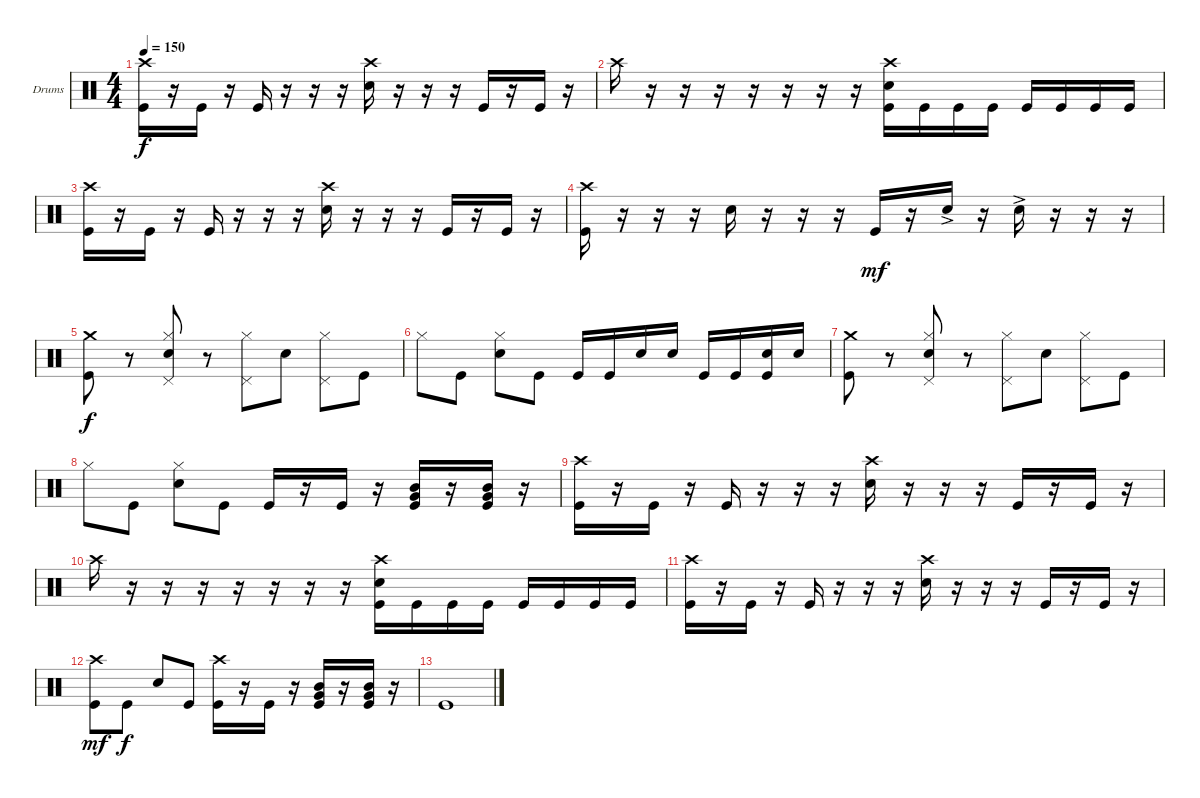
\bracketExtendMode groupsimilarinstruments
\firstSystemTrackNameOrientation horizontal
\otherSystemsTrackNameOrientation horizontal
\track ("Cory La Quay" "Drums") {instrument percussion}
\staff {score}
\articulation defaults
\ts (4 4)
\tempo 150
\clef neutral
\ks c
("Crash high (hit)" "Kick (hit)").16{dy f} r.16 "Kick (hit)".16 r.16 "Kick (hit)".16 r.16 r.16 r.16 ("Crash high (hit)" "Snare (hit) 2").16 r.16 r.16 r.16 "Kick (hit)".16 r.16 "Kick (hit)".16 r.16 |
"Crash high (hit)".16 r.16 r.16 r.16 r.16 r.16 r.16 r.16 ("Crash high (hit)" "Snare (hit) 2" "Kick (hit)").16 "Kick (hit)".16 "Kick (hit)".16 "Kick (hit)".16 "Kick (hit)".16 "Kick (hit)".16 "Kick (hit)".16 "Kick (hit)".16 |
("Crash high (hit)" "Kick (hit)").16 r.16 "Kick (hit)".16 r.16 "Kick (hit)".16 r.16 r.16 r.16 ("Crash high (hit)" "Snare (hit) 2").16 r.16 r.16 r.16 "Kick (hit)".16 r.16 "Kick (hit)".16 r.16 |
("Crash high (hit)" "Kick (hit)").16 r.16 r.16 r.16 "Snare (hit) 2".16 r.16 r.16 r.16 "Kick (hit)".16{dy mf} r.16 "Snare (hit) 2"{ac}.16 r.16 "Snare (hit) 2"{ac}.16 r.16 r.16 r.16 |
("Kick (hit)" "Crash medium (hit)").8{dy f} r.8 ("Snare (hit) 2" "Hi-Hat (closed)" "Pedal Hi-Hat (hit)").8 r.8 ("Hi-Hat (closed)" "Pedal Hi-Hat (hit)").8 "Snare (hit) 2".8 ("Hi-Hat (closed)" "Pedal Hi-Hat (hit)").8 "Kick (hit)".8 |
"Hi-Hat (closed)".8 "Kick (hit)".8 ("Snare (hit) 2" "Hi-Hat (closed)").8 "Kick (hit)".8 "Kick (hit)".16 "Kick (hit)".16 "Snare (hit) 2".16 "Snare (hit) 2".16 "Kick (hit)".16 "Kick (hit)".16 ("Snare (hit) 2" "Kick (hit)").16 "Snare (hit) 2".16 |
("Kick (hit)" "Crash medium (hit)").8 r.8 ("Snare (hit) 2" "Hi-Hat (closed)" "Pedal Hi-Hat (hit)").8 r.8 ("Hi-Hat (closed)" "Pedal Hi-Hat (hit)").8 "Snare (hit) 2".8 ("Hi-Hat (closed)" "Pedal Hi-Hat (hit)").8 "Kick (hit)".8 |
"Hi-Hat (closed)".8 "Kick (hit)".8 ("Snare (hit) 2" "Hi-Hat (closed)").8 "Kick (hit)".8 "Kick (hit)".16 r.16 "Kick (hit)".16 r.16 ("Kick (hit)" "Mid Tom (hit)" "Very Low Tom (hit)").16 r.16 ("Kick (hit)" "Mid Tom (hit)" "Very Low Tom (hit)").16 r.16 |
("Crash high (hit)" "Kick (hit)").16 r.16 "Kick (hit)".16 r.16 "Kick (hit)".16 r.16 r.16 r.16 ("Crash high (hit)" "Snare (hit) 2").16 r.16 r.16 r.16 "Kick (hit)".16 r.16 "Kick (hit)".16 r.16 |
"Crash high (hit)".16 r.16 r.16 r.16 r.16 r.16 r.16 r.16 ("Crash high (hit)" "Snare (hit) 2" "Kick (hit)").16 "Kick (hit)".16 "Kick (hit)".16 "Kick (hit)".16 "Kick (hit)".16 "Kick (hit)".16 "Kick (hit)".16 "Kick (hit)".16 |
("Crash high (hit)" "Kick (hit)").16 r.16 "Kick (hit)".16 r.16 "Kick (hit)".16 r.16 r.16 r.16 ("Crash high (hit)" "Snare (hit) 2").16 r.16 r.16 r.16 "Kick (hit)".16 r.16 "Kick (hit)".16 r.16 |
("Crash high (hit)" "Kick (hit)").8{dy mf} "Kick (hit)".8{dy f} "Snare (hit) 2".8 "Kick (hit)".8 ("Kick (hit)" "Crash high (hit)").16 r.16 "Kick (hit)".16 r.16 ("Kick (hit)" "Mid Tom (hit)" "Very Low Tom (hit)").16 r.16 ("Kick (hit)" "Mid Tom (hit)" "Very Low Tom (hit)").16 r.16 |
"Kick (hit)".1
